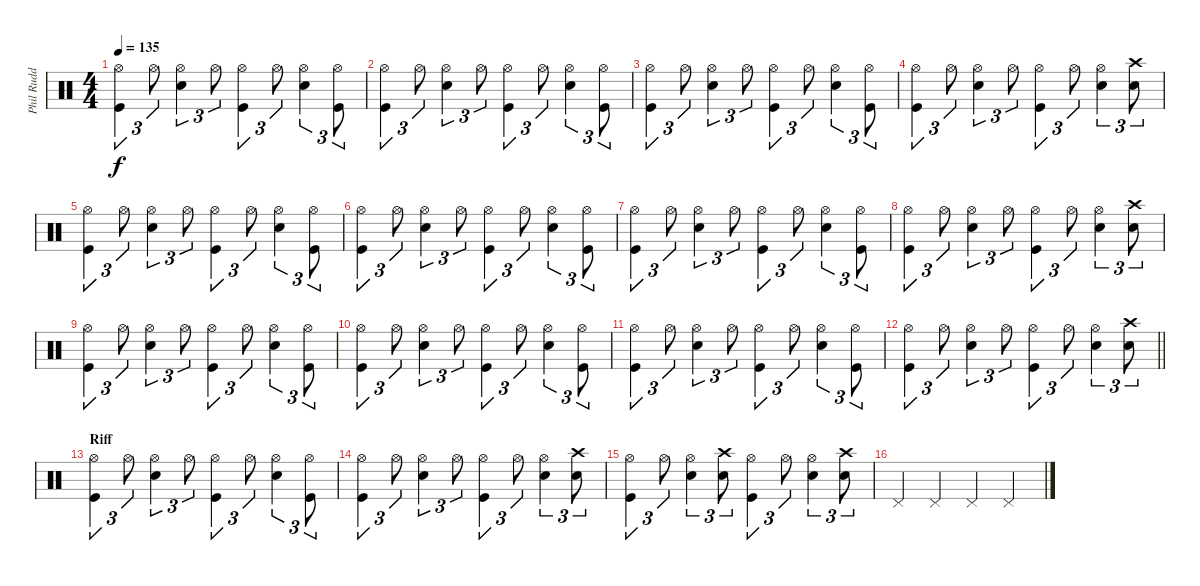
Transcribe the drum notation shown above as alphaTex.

\track ("Phil Rudd" "Phil Rudd") {instrument percussion}
\staff {score}
\articulation defaults
\ts (4 4)
\tempo 135
\clef neutral
\ks c
("Hi-Hat (open)" "Kick (hit)").4{tu (3 2) dy f} "Hi-Hat (open)".8{tu (3 2)} ("Hi-Hat (open)" "Snare (hit) 2").4{tu (3 2)} "Hi-Hat (open)".8{tu (3 2)} ("Hi-Hat (open)" "Kick (hit)").4{tu (3 2)} "Hi-Hat (open)".8{tu (3 2)} ("Hi-Hat (open)" "Snare (hit) 2").4{tu (3 2)} ("Hi-Hat (open)" "Kick (hit)").8{tu (3 2)} |
("Hi-Hat (open)" "Kick (hit)").4{tu (3 2)} "Hi-Hat (open)".8{tu (3 2)} ("Hi-Hat (open)" "Snare (hit) 2").4{tu (3 2)} "Hi-Hat (open)".8{tu (3 2)} ("Hi-Hat (open)" "Kick (hit)").4{tu (3 2)} "Hi-Hat (open)".8{tu (3 2)} ("Hi-Hat (open)" "Snare (hit) 2").4{tu (3 2)} ("Hi-Hat (open)" "Kick (hit)").8{tu (3 2)} |
("Hi-Hat (open)" "Kick (hit)").4{tu (3 2)} "Hi-Hat (open)".8{tu (3 2)} ("Hi-Hat (open)" "Snare (hit) 2").4{tu (3 2)} "Hi-Hat (open)".8{tu (3 2)} ("Hi-Hat (open)" "Kick (hit)").4{tu (3 2)} "Hi-Hat (open)".8{tu (3 2)} ("Hi-Hat (open)" "Snare (hit) 2").4{tu (3 2)} ("Hi-Hat (open)" "Kick (hit)").8{tu (3 2)} |
("Hi-Hat (open)" "Kick (hit)").4{tu (3 2)} "Hi-Hat (open)".8{tu (3 2)} ("Hi-Hat (open)" "Snare (hit) 2").4{tu (3 2)} "Hi-Hat (open)".8{tu (3 2)} ("Hi-Hat (open)" "Kick (hit)").4{tu (3 2)} "Hi-Hat (open)".8{tu (3 2)} ("Hi-Hat (open)" "Snare (hit) 2").4{tu (3 2)} ("Crash high (hit)" "Snare (hit) 2").8{tu (3 2)} |
("Hi-Hat (open)" "Kick (hit)").4{tu (3 2)} "Hi-Hat (open)".8{tu (3 2)} ("Hi-Hat (open)" "Snare (hit) 2").4{tu (3 2)} "Hi-Hat (open)".8{tu (3 2)} ("Hi-Hat (open)" "Kick (hit)").4{tu (3 2)} "Hi-Hat (open)".8{tu (3 2)} ("Hi-Hat (open)" "Snare (hit) 2").4{tu (3 2)} ("Hi-Hat (open)" "Kick (hit)").8{tu (3 2)} |
("Hi-Hat (open)" "Kick (hit)").4{tu (3 2)} "Hi-Hat (open)".8{tu (3 2)} ("Hi-Hat (open)" "Snare (hit) 2").4{tu (3 2)} "Hi-Hat (open)".8{tu (3 2)} ("Hi-Hat (open)" "Kick (hit)").4{tu (3 2)} "Hi-Hat (open)".8{tu (3 2)} ("Hi-Hat (open)" "Snare (hit) 2").4{tu (3 2)} ("Hi-Hat (open)" "Kick (hit)").8{tu (3 2)} |
("Hi-Hat (open)" "Kick (hit)").4{tu (3 2)} "Hi-Hat (open)".8{tu (3 2)} ("Hi-Hat (open)" "Snare (hit) 2").4{tu (3 2)} "Hi-Hat (open)".8{tu (3 2)} ("Hi-Hat (open)" "Kick (hit)").4{tu (3 2)} "Hi-Hat (open)".8{tu (3 2)} ("Hi-Hat (open)" "Snare (hit) 2").4{tu (3 2)} ("Hi-Hat (open)" "Kick (hit)").8{tu (3 2)} |
("Hi-Hat (open)" "Kick (hit)").4{tu (3 2)} "Hi-Hat (open)".8{tu (3 2)} ("Hi-Hat (open)" "Snare (hit) 2").4{tu (3 2)} "Hi-Hat (open)".8{tu (3 2)} ("Hi-Hat (open)" "Kick (hit)").4{tu (3 2)} "Hi-Hat (open)".8{tu (3 2)} ("Hi-Hat (open)" "Snare (hit) 2").4{tu (3 2)} ("Crash high (hit)" "Snare (hit) 2").8{tu (3 2)} |
("Hi-Hat (open)" "Kick (hit)").4{tu (3 2)} "Hi-Hat (open)".8{tu (3 2)} ("Hi-Hat (open)" "Snare (hit) 2").4{tu (3 2)} "Hi-Hat (open)".8{tu (3 2)} ("Hi-Hat (open)" "Kick (hit)").4{tu (3 2)} "Hi-Hat (open)".8{tu (3 2)} ("Hi-Hat (open)" "Snare (hit) 2").4{tu (3 2)} ("Hi-Hat (open)" "Kick (hit)").8{tu (3 2)} |
("Hi-Hat (open)" "Kick (hit)").4{tu (3 2)} "Hi-Hat (open)".8{tu (3 2)} ("Hi-Hat (open)" "Snare (hit) 2").4{tu (3 2)} "Hi-Hat (open)".8{tu (3 2)} ("Hi-Hat (open)" "Kick (hit)").4{tu (3 2)} "Hi-Hat (open)".8{tu (3 2)} ("Hi-Hat (open)" "Snare (hit) 2").4{tu (3 2)} ("Hi-Hat (open)" "Kick (hit)").8{tu (3 2)} |
("Hi-Hat (open)" "Kick (hit)").4{tu (3 2)} "Hi-Hat (open)".8{tu (3 2)} ("Hi-Hat (open)" "Snare (hit) 2").4{tu (3 2)} "Hi-Hat (open)".8{tu (3 2)} ("Hi-Hat (open)" "Kick (hit)").4{tu (3 2)} "Hi-Hat (open)".8{tu (3 2)} ("Hi-Hat (open)" "Snare (hit) 2").4{tu (3 2)} ("Hi-Hat (open)" "Kick (hit)").8{tu (3 2)} |
\barLineRight lightlight
("Hi-Hat (open)" "Kick (hit)").4{tu (3 2)} "Hi-Hat (open)".8{tu (3 2)} ("Hi-Hat (open)" "Snare (hit) 2").4{tu (3 2)} "Hi-Hat (open)".8{tu (3 2)} ("Hi-Hat (open)" "Kick (hit)").4{tu (3 2)} "Hi-Hat (open)".8{tu (3 2)} ("Hi-Hat (open)" "Snare (hit) 2").4{tu (3 2)} ("Crash high (hit)" "Snare (hit) 2").8{tu (3 2)} |
\section ("" "Riff")
("Hi-Hat (open)" "Kick (hit)").4{tu (3 2)} "Hi-Hat (open)".8{tu (3 2)} ("Hi-Hat (open)" "Snare (hit) 2").4{tu (3 2)} "Hi-Hat (open)".8{tu (3 2)} ("Hi-Hat (open)" "Kick (hit)").4{tu (3 2)} "Hi-Hat (open)".8{tu (3 2)} ("Hi-Hat (open)" "Snare (hit) 2").4{tu (3 2)} ("Hi-Hat (open)" "Kick (hit)").8{tu (3 2)} |
("Hi-Hat (open)" "Kick (hit)").4{tu (3 2)} "Hi-Hat (open)".8{tu (3 2)} ("Hi-Hat (open)" "Snare (hit) 2").4{tu (3 2)} "Hi-Hat (open)".8{tu (3 2)} ("Hi-Hat (open)" "Kick (hit)").4{tu (3 2)} "Hi-Hat (open)".8{tu (3 2)} ("Hi-Hat (open)" "Snare (hit) 2").4{tu (3 2)} ("Crash high (hit)" "Snare (hit) 2").8{tu (3 2)} |
("Hi-Hat (open)" "Kick (hit)").4{tu (3 2)} "Hi-Hat (open)".8{tu (3 2)} ("Hi-Hat (open)" "Snare (hit) 2").4{tu (3 2)} ("Crash high (hit)" "Snare (hit) 2").8{tu (3 2)} ("Hi-Hat (open)" "Kick (hit)").4{tu (3 2)} "Hi-Hat (open)".8{tu (3 2)} ("Hi-Hat (open)" "Snare (hit) 2").4{tu (3 2)} ("Crash high (hit)" "Snare (hit) 2").8{tu (3 2)} |
"Pedal Hi-Hat (hit)".4 "Pedal Hi-Hat (hit)".4 "Pedal Hi-Hat (hit)".4 "Pedal Hi-Hat (hit)".4
